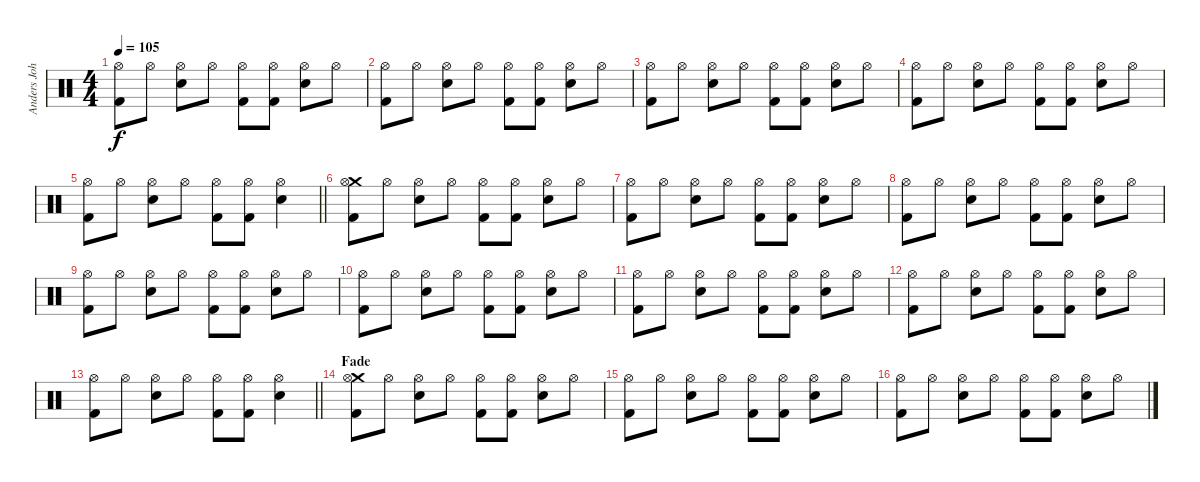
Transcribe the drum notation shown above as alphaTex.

\track ("Anders Johansson" "Anders Joh") {instrument percussion}
\staff {score}
\articulation defaults
\ts (4 4)
\tempo 105
\clef neutral
\ks c
("Hi-Hat (open)" "Kick (hit) 2").8{dy f} "Hi-Hat (open)".8 ("Hi-Hat (open)" "Snare (hit) 2").8 "Hi-Hat (open)".8 ("Hi-Hat (open)" "Kick (hit) 2").8 ("Hi-Hat (open)" "Kick (hit) 2").8 ("Hi-Hat (open)" "Snare (hit) 2").8 "Hi-Hat (open)".8 |
("Hi-Hat (open)" "Kick (hit) 2").8 "Hi-Hat (open)".8 ("Hi-Hat (open)" "Snare (hit) 2").8 "Hi-Hat (open)".8 ("Hi-Hat (open)" "Kick (hit) 2").8 ("Hi-Hat (open)" "Kick (hit) 2").8 ("Hi-Hat (open)" "Snare (hit) 2").8 "Hi-Hat (open)".8 |
("Hi-Hat (open)" "Kick (hit) 2").8 "Hi-Hat (open)".8 ("Hi-Hat (open)" "Snare (hit) 2").8 "Hi-Hat (open)".8 ("Hi-Hat (open)" "Kick (hit) 2").8 ("Hi-Hat (open)" "Kick (hit) 2").8 ("Hi-Hat (open)" "Snare (hit) 2").8 "Hi-Hat (open)".8 |
("Hi-Hat (open)" "Kick (hit) 2").8 "Hi-Hat (open)".8 ("Hi-Hat (open)" "Snare (hit) 2").8 "Hi-Hat (open)".8 ("Hi-Hat (open)" "Kick (hit) 2").8 ("Hi-Hat (open)" "Kick (hit) 2").8 ("Hi-Hat (open)" "Snare (hit) 2").8 "Hi-Hat (open)".8 |
\barLineRight lightlight
("Hi-Hat (open)" "Kick (hit) 2").8 "Hi-Hat (open)".8 ("Hi-Hat (open)" "Snare (hit) 2").8 "Hi-Hat (open)".8 ("Hi-Hat (open)" "Kick (hit) 2").8 ("Hi-Hat (open)" "Kick (hit) 2").8 ("Hi-Hat (open)" "Snare (hit) 2").4 |
("Crash medium (hit)" "Hi-Hat (open)" "Kick (hit) 2").8 "Hi-Hat (open)".8 ("Hi-Hat (open)" "Snare (hit) 2").8 "Hi-Hat (open)".8 ("Hi-Hat (open)" "Kick (hit) 2").8 ("Hi-Hat (open)" "Kick (hit) 2").8 ("Hi-Hat (open)" "Snare (hit) 2").8 "Hi-Hat (open)".8 |
("Hi-Hat (open)" "Kick (hit) 2").8 "Hi-Hat (open)".8 ("Hi-Hat (open)" "Snare (hit) 2").8 "Hi-Hat (open)".8 ("Hi-Hat (open)" "Kick (hit) 2").8 ("Hi-Hat (open)" "Kick (hit) 2").8 ("Hi-Hat (open)" "Snare (hit) 2").8 "Hi-Hat (open)".8 |
("Hi-Hat (open)" "Kick (hit) 2").8 "Hi-Hat (open)".8 ("Hi-Hat (open)" "Snare (hit) 2").8 "Hi-Hat (open)".8 ("Hi-Hat (open)" "Kick (hit) 2").8 ("Hi-Hat (open)" "Kick (hit) 2").8 ("Hi-Hat (open)" "Snare (hit) 2").8 "Hi-Hat (open)".8 |
("Hi-Hat (open)" "Kick (hit) 2").8 "Hi-Hat (open)".8 ("Hi-Hat (open)" "Snare (hit) 2").8 "Hi-Hat (open)".8 ("Hi-Hat (open)" "Kick (hit) 2").8 ("Hi-Hat (open)" "Kick (hit) 2").8 ("Hi-Hat (open)" "Snare (hit) 2").8 "Hi-Hat (open)".8 |
("Hi-Hat (open)" "Kick (hit) 2").8 "Hi-Hat (open)".8 ("Hi-Hat (open)" "Snare (hit) 2").8 "Hi-Hat (open)".8 ("Hi-Hat (open)" "Kick (hit) 2").8 ("Hi-Hat (open)" "Kick (hit) 2").8 ("Hi-Hat (open)" "Snare (hit) 2").8 "Hi-Hat (open)".8 |
("Hi-Hat (open)" "Kick (hit) 2").8 "Hi-Hat (open)".8 ("Hi-Hat (open)" "Snare (hit) 2").8 "Hi-Hat (open)".8 ("Hi-Hat (open)" "Kick (hit) 2").8 ("Hi-Hat (open)" "Kick (hit) 2").8 ("Hi-Hat (open)" "Snare (hit) 2").8 "Hi-Hat (open)".8 |
("Hi-Hat (open)" "Kick (hit) 2").8 "Hi-Hat (open)".8 ("Hi-Hat (open)" "Snare (hit) 2").8 "Hi-Hat (open)".8 ("Hi-Hat (open)" "Kick (hit) 2").8 ("Hi-Hat (open)" "Kick (hit) 2").8 ("Hi-Hat (open)" "Snare (hit) 2").8 "Hi-Hat (open)".8 |
\barLineRight lightlight
("Hi-Hat (open)" "Kick (hit) 2").8 "Hi-Hat (open)".8 ("Hi-Hat (open)" "Snare (hit) 2").8 "Hi-Hat (open)".8 ("Hi-Hat (open)" "Kick (hit) 2").8 ("Hi-Hat (open)" "Kick (hit) 2").8 ("Hi-Hat (open)" "Snare (hit) 2").4 |
\section ("" "Fade")
("Crash medium (hit)" "Hi-Hat (open)" "Kick (hit) 2").8 "Hi-Hat (open)".8 ("Hi-Hat (open)" "Snare (hit) 2").8 "Hi-Hat (open)".8 ("Hi-Hat (open)" "Kick (hit) 2").8 ("Hi-Hat (open)" "Kick (hit) 2").8 ("Hi-Hat (open)" "Snare (hit) 2").8 "Hi-Hat (open)".8 |
("Hi-Hat (open)" "Kick (hit) 2").8 "Hi-Hat (open)".8 ("Hi-Hat (open)" "Snare (hit) 2").8 "Hi-Hat (open)".8 ("Hi-Hat (open)" "Kick (hit) 2").8 ("Hi-Hat (open)" "Kick (hit) 2").8 ("Hi-Hat (open)" "Snare (hit) 2").8 "Hi-Hat (open)".8 |
("Hi-Hat (open)" "Kick (hit) 2").8 "Hi-Hat (open)".8 ("Hi-Hat (open)" "Snare (hit) 2").8 "Hi-Hat (open)".8 ("Hi-Hat (open)" "Kick (hit) 2").8 ("Hi-Hat (open)" "Kick (hit) 2").8 ("Hi-Hat (open)" "Snare (hit) 2").8 "Hi-Hat (open)".8
